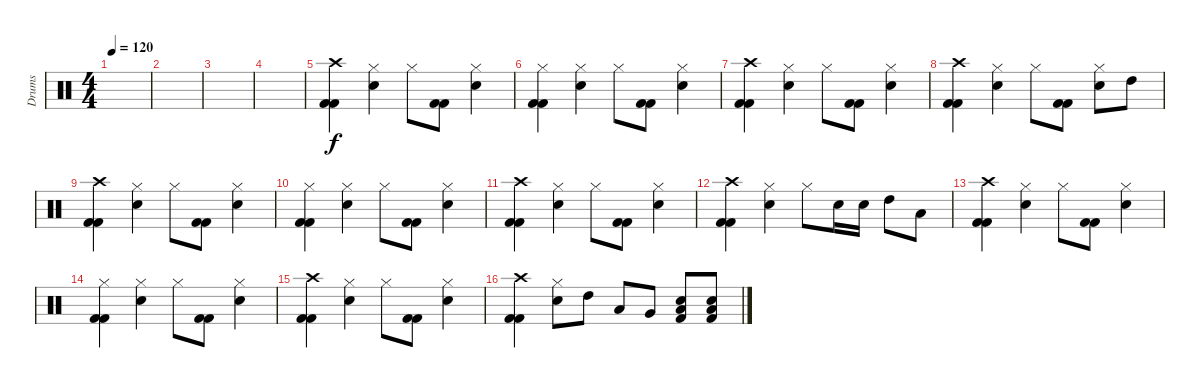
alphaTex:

\track ("Drums" "Drums") {instrument percussion}
\staff {score}
\articulation defaults
\ts (4 4)
\tempo 120
\clef neutral
\ks c
|
|
|
|
("Crash high (hit)" "Kick (hit) 2" "Kick (hit) 2").4 ("Electric Snare (hit)" "Hi-Hat (closed)").4 "Hi-Hat (closed)".8 ("Kick (hit) 2" "Kick (hit) 2").8 ("Electric Snare (hit)" "Hi-Hat (closed)").4 |
("Hi-Hat (closed)" "Kick (hit) 2" "Kick (hit) 2").4 ("Electric Snare (hit)" "Hi-Hat (closed)").4 "Hi-Hat (closed)".8 ("Kick (hit) 2" "Kick (hit) 2").8 ("Electric Snare (hit)" "Hi-Hat (closed)").4 |
("Crash high (hit)" "Kick (hit) 2" "Kick (hit) 2").4 ("Electric Snare (hit)" "Hi-Hat (closed)").4 "Hi-Hat (closed)".8 ("Kick (hit) 2" "Kick (hit) 2").8 ("Electric Snare (hit)" "Hi-Hat (closed)").4 |
("Crash high (hit)" "Kick (hit) 2" "Kick (hit) 2").4 ("Electric Snare (hit)" "Hi-Hat (closed)").4 "Hi-Hat (closed)".8 ("Kick (hit) 2" "Kick (hit) 2").8 ("Electric Snare (hit)" "Hi-Hat (closed)").8 "High Tom (hit)".8 |
("Crash high (hit)" "Kick (hit) 2" "Kick (hit) 2").4 ("Electric Snare (hit)" "Hi-Hat (closed)").4 "Hi-Hat (closed)".8 ("Kick (hit) 2" "Kick (hit) 2").8 ("Electric Snare (hit)" "Hi-Hat (closed)").4 |
("Hi-Hat (closed)" "Kick (hit) 2" "Kick (hit) 2").4 ("Electric Snare (hit)" "Hi-Hat (closed)").4 "Hi-Hat (closed)".8 ("Kick (hit) 2" "Kick (hit) 2").8 ("Electric Snare (hit)" "Hi-Hat (closed)").4 |
("Crash high (hit)" "Kick (hit) 2" "Kick (hit) 2").4 ("Electric Snare (hit)" "Hi-Hat (closed)").4 "Hi-Hat (closed)".8 ("Kick (hit) 2" "Kick (hit) 2").8 ("Electric Snare (hit)" "Hi-Hat (closed)").4 |
("Crash high (hit)" "Kick (hit) 2" "Kick (hit) 2").4 ("Electric Snare (hit)" "Hi-Hat (closed)").4 "Hi-Hat (closed)".8 "Electric Snare (hit)".16 "Electric Snare (hit)".16 "High Tom (hit)".8 "Low Tom (hit)".8 |
("Crash high (hit)" "Kick (hit) 2" "Kick (hit) 2").4 ("Electric Snare (hit)" "Hi-Hat (closed)").4 "Hi-Hat (closed)".8 ("Kick (hit) 2" "Kick (hit) 2").8 ("Electric Snare (hit)" "Hi-Hat (closed)").4 |
("Hi-Hat (closed)" "Kick (hit) 2" "Kick (hit) 2").4 ("Electric Snare (hit)" "Hi-Hat (closed)").4 "Hi-Hat (closed)".8 ("Kick (hit) 2" "Kick (hit) 2").8 ("Electric Snare (hit)" "Hi-Hat (closed)").4 |
("Crash high (hit)" "Kick (hit) 2" "Kick (hit) 2").4 ("Electric Snare (hit)" "Hi-Hat (closed)").4 "Hi-Hat (closed)".8 ("Kick (hit) 2" "Kick (hit) 2").8 ("Electric Snare (hit)" "Hi-Hat (closed)").4 |
("Crash high (hit)" "Kick (hit) 2" "Kick (hit) 2").4 ("Electric Snare (hit)" "Hi-Hat (closed)").8 "High Tom (hit)".8 "Low Tom (hit)".8 "Very Low Tom (hit)".8 ("Low Floor Tom (hit)" "Kick (hit) 2" "Electric Snare (hit)").8 ("Low Floor Tom (hit)" "Electric Snare (hit)" "Kick (hit) 2").8
